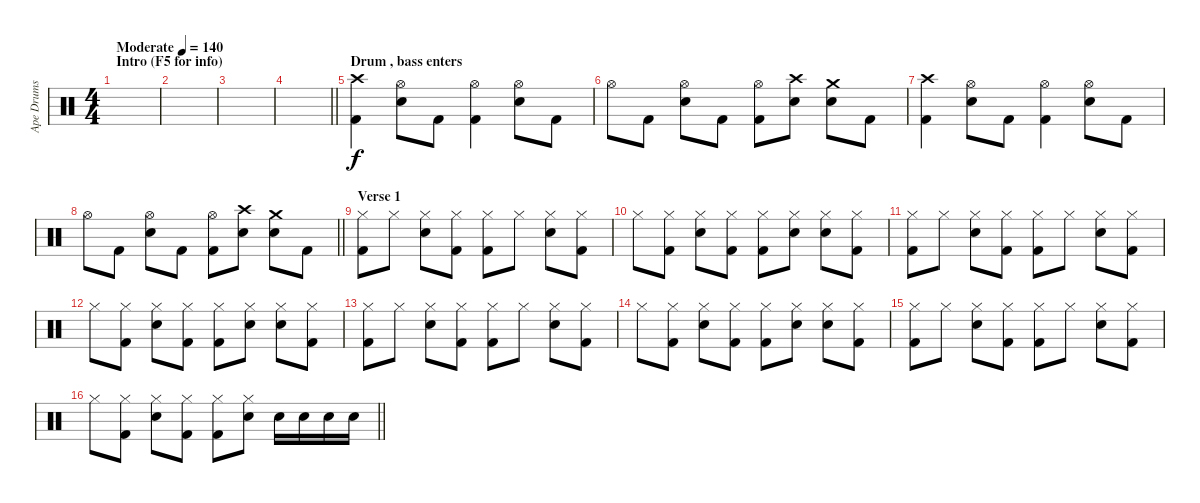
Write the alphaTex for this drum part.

\track ("Ape Drums" "Ape Drums") {instrument percussion}
\staff {score}
\articulation defaults
\ts (4 4)
\section ("" "Intro (F5 for info)")
\tempo (140 "Moderate")
\clef neutral
\ks c
|
|
|
\barLineRight lightlight
|
\section ("" "Drum , bass enters")
("Crash high (hit)" "Kick (hit) 2").4 ("Hi-Hat (open)" "Snare (hit) 2").8 "Kick (hit) 2".8 ("Hi-Hat (open)" "Kick (hit) 2").4 ("Hi-Hat (open)" "Snare (hit) 2").8 "Kick (hit) 2".8 |
"Hi-Hat (open)".8 "Kick (hit) 2".8 ("Hi-Hat (open)" "Snare (hit) 2").8 "Kick (hit) 2".8 ("Hi-Hat (open)" "Kick (hit) 2").8 ("Crash high (hit)" "Snare (hit) 2").8 ("Crash medium (hit)" "Snare (hit) 2").8 "Kick (hit) 2".8 |
("Crash high (hit)" "Kick (hit) 2").4 ("Hi-Hat (open)" "Snare (hit) 2").8 "Kick (hit) 2".8 ("Hi-Hat (open)" "Kick (hit) 2").4 ("Hi-Hat (open)" "Snare (hit) 2").8 "Kick (hit) 2".8 |
\barLineRight lightlight "Hi-Hat (open)".8 "Kick (hit) 2".8
("Hi-Hat (open)" "Snare (hit) 2").8 "Kick (hit) 2".8 ("Hi-Hat (open)" "Kick (hit) 2").8 ("Crash high (hit)" "Snare (hit) 2").8 ("Crash medium (hit)" "Snare (hit) 2").8 "Kick (hit) 2".8 |
\section ("" "Verse 1")
("Hi-Hat (closed)" "Kick (hit) 2").8 "Hi-Hat (closed)".8 ("Hi-Hat (closed)" "Snare (hit) 2").8 ("Hi-Hat (closed)" "Kick (hit) 2").8 ("Hi-Hat (closed)" "Kick (hit) 2").8 "Hi-Hat (closed)".8 ("Hi-Hat (closed)" "Snare (hit) 2").8 ("Hi-Hat (closed)" "Kick (hit) 2").8 |
"Hi-Hat (closed)".8 ("Hi-Hat (closed)" "Kick (hit) 2").8 ("Hi-Hat (closed)" "Snare (hit) 2").8 ("Hi-Hat (closed)" "Kick (hit) 2").8 ("Hi-Hat (closed)" "Kick (hit) 2").8 ("Hi-Hat (closed)" "Snare (hit) 2").8 ("Hi-Hat (closed)" "Snare (hit) 2").8 ("Hi-Hat (closed)" "Kick (hit) 2").8 |
("Hi-Hat (closed)" "Kick (hit) 2").8 "Hi-Hat (closed)".8 ("Hi-Hat (closed)" "Snare (hit) 2").8 ("Hi-Hat (closed)" "Kick (hit) 2").8 ("Hi-Hat (closed)" "Kick (hit) 2").8 "Hi-Hat (closed)".8 ("Hi-Hat (closed)" "Snare (hit) 2").8 ("Hi-Hat (closed)" "Kick (hit) 2").8 |
"Hi-Hat (closed)".8 ("Hi-Hat (closed)" "Kick (hit) 2").8 ("Hi-Hat (closed)" "Snare (hit) 2").8 ("Hi-Hat (closed)" "Kick (hit) 2").8 ("Hi-Hat (closed)" "Kick (hit) 2").8 ("Hi-Hat (closed)" "Snare (hit) 2").8 ("Hi-Hat (closed)" "Snare (hit) 2").8 ("Hi-Hat (closed)" "Kick (hit) 2").8 |
("Hi-Hat (closed)" "Kick (hit) 2").8 "Hi-Hat (closed)".8 ("Hi-Hat (closed)" "Snare (hit) 2").8 ("Hi-Hat (closed)" "Kick (hit) 2").8 ("Hi-Hat (closed)" "Kick (hit) 2").8 "Hi-Hat (closed)".8 ("Hi-Hat (closed)" "Snare (hit) 2").8 ("Hi-Hat (closed)" "Kick (hit) 2").8 |
"Hi-Hat (closed)".8 ("Hi-Hat (closed)" "Kick (hit) 2").8 ("Hi-Hat (closed)" "Snare (hit) 2").8 ("Hi-Hat (closed)" "Kick (hit) 2").8 ("Hi-Hat (closed)" "Kick (hit) 2").8 ("Hi-Hat (closed)" "Snare (hit) 2").8 ("Hi-Hat (closed)" "Snare (hit) 2").8 ("Hi-Hat (closed)" "Kick (hit) 2").8 |
("Hi-Hat (closed)" "Kick (hit) 2").8 "Hi-Hat (closed)".8 ("Hi-Hat (closed)" "Snare (hit) 2").8 ("Hi-Hat (closed)" "Kick (hit) 2").8 ("Hi-Hat (closed)" "Kick (hit) 2").8 "Hi-Hat (closed)".8 ("Hi-Hat (closed)" "Snare (hit) 2").8 ("Hi-Hat (closed)" "Kick (hit) 2").8 |
\barLineRight lightlight "Hi-Hat (closed)".8
("Hi-Hat (closed)" "Kick (hit) 2").8 ("Hi-Hat (closed)" "Snare (hit) 2").8 ("Hi-Hat (closed)" "Kick (hit) 2").8 ("Hi-Hat (closed)" "Kick (hit) 2").8 ("Hi-Hat (closed)" "Snare (hit) 2").8 "Snare (hit) 2".16 "Snare (hit) 2".16 "Snare (hit) 2".16 "Snare (hit) 2".16
